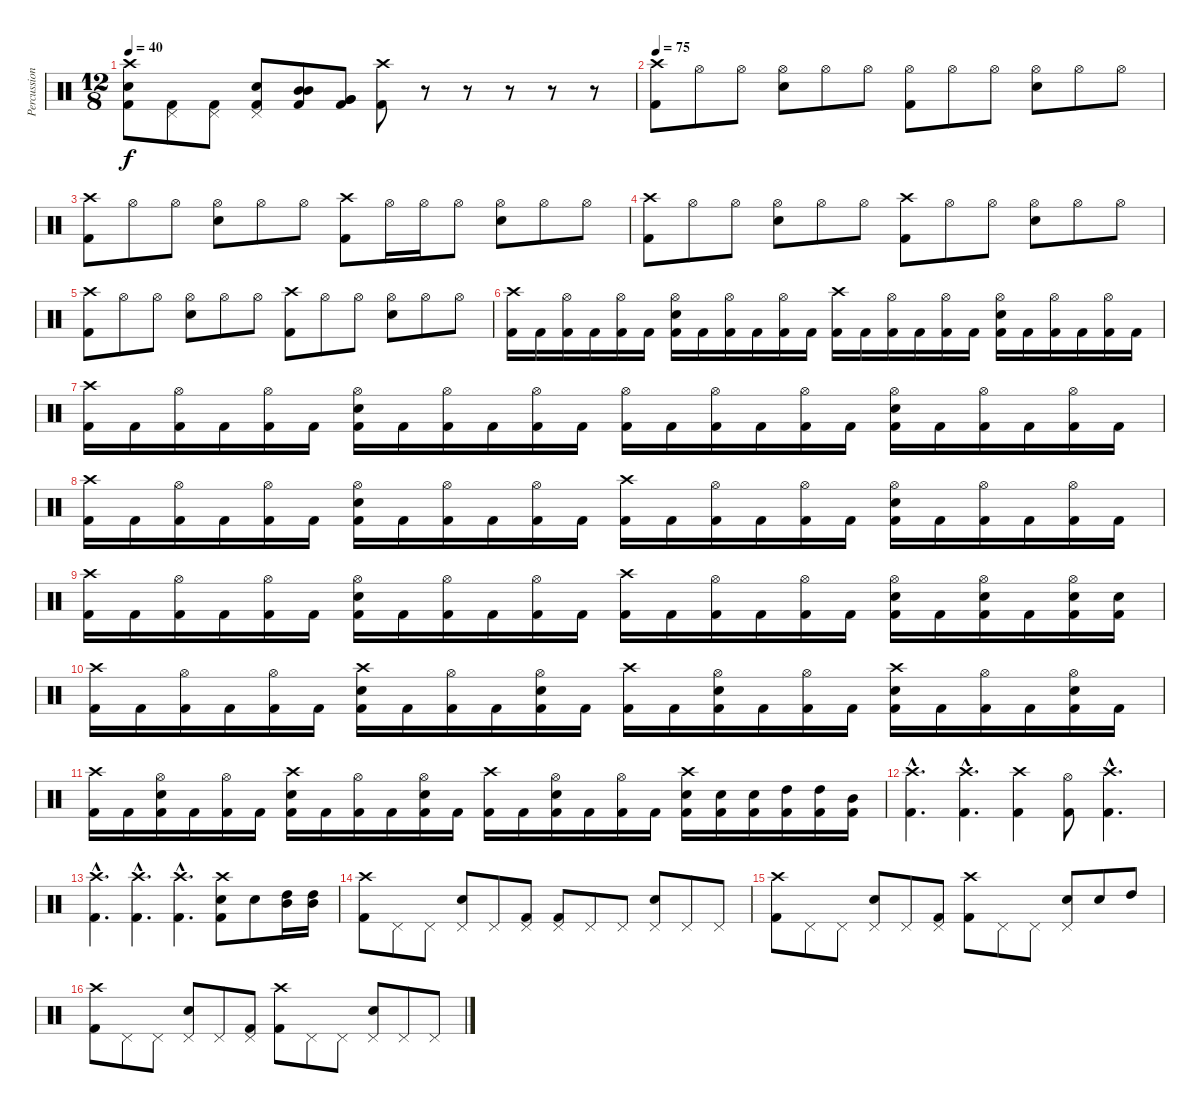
\track ("Percussions" "Percussion") {instrument percussion}
\staff {score}
\articulation defaults
\ts (12 8)
\tempo 40
\clef neutral
\ks c
("Crash high (hit)" "Electric Snare (hit)" "Kick (hit) 2").8{dy f} ("Pedal Hi-Hat (hit)" "Kick (hit) 2").8 ("Pedal Hi-Hat (hit)" "Kick (hit) 2").8 ("Pedal Hi-Hat (hit)" "Electric Snare (hit)" "Kick (hit) 2").8 ("Mid Tom (hit)" "Mid Tom (hit)" "Kick (hit) 2").8 ("Very Low Tom (hit)" "Very Low Tom (hit)" "Kick (hit) 2").8 ("Crash high (hit)" "Kick (hit) 2").8 r.8 r.8 r.8 r.8 r.8 |
\tempo 75
("Crash high (hit)" "Kick (hit) 2").8 "Hi-Hat (open)".8 "Hi-Hat (open)".8 ("Hi-Hat (open)" "Electric Snare (hit)").8 "Hi-Hat (open)".8 "Hi-Hat (open)".8 ("Hi-Hat (open)" "Kick (hit) 2").8 "Hi-Hat (open)".8 "Hi-Hat (open)".8 ("Hi-Hat (open)" "Electric Snare (hit)").8 "Hi-Hat (open)".8 "Hi-Hat (open)".8 |
("Crash high (hit)" "Kick (hit) 2").8 "Hi-Hat (open)".8 "Hi-Hat (open)".8 ("Hi-Hat (open)" "Electric Snare (hit)").8 "Hi-Hat (open)".8 "Hi-Hat (open)".8 ("Crash high (hit)" "Kick (hit) 2").8 "Hi-Hat (open)".16 "Hi-Hat (open)".16 "Hi-Hat (open)".8 ("Hi-Hat (open)" "Electric Snare (hit)").8 "Hi-Hat (open)".8 "Hi-Hat (open)".8 |
("Crash high (hit)" "Kick (hit) 2").8 "Hi-Hat (open)".8 "Hi-Hat (open)".8 ("Hi-Hat (open)" "Electric Snare (hit)").8 "Hi-Hat (open)".8 "Hi-Hat (open)".8 ("Crash high (hit)" "Kick (hit) 2").8 "Hi-Hat (open)".8 "Hi-Hat (open)".8 ("Hi-Hat (open)" "Electric Snare (hit)").8 "Hi-Hat (open)".8 "Hi-Hat (open)".8 |
("Crash high (hit)" "Kick (hit) 2").8 "Hi-Hat (open)".8 "Hi-Hat (open)".8 ("Hi-Hat (open)" "Electric Snare (hit)").8 "Hi-Hat (open)".8 "Hi-Hat (open)".8 ("Crash high (hit)" "Kick (hit) 2").8 "Hi-Hat (open)".8 "Hi-Hat (open)".8 ("Hi-Hat (open)" "Electric Snare (hit)").8 "Hi-Hat (open)".8 "Hi-Hat (open)".8 |
("Crash high (hit)" "Kick (hit) 2").16 "Kick (hit) 2".16 ("Hi-Hat (open)" "Kick (hit) 2").16 "Kick (hit) 2".16 ("Hi-Hat (open)" "Kick (hit) 2").16 "Kick (hit) 2".16 ("Hi-Hat (open)" "Electric Snare (hit)" "Kick (hit) 2").16 "Kick (hit) 2".16 ("Hi-Hat (open)" "Kick (hit) 2").16 "Kick (hit) 2".16 ("Hi-Hat (open)" "Kick (hit) 2").16 "Kick (hit) 2".16 ("Crash high (hit)" "Kick (hit) 2").16 "Kick (hit) 2".16 ("Hi-Hat (open)" "Kick (hit) 2").16 "Kick (hit) 2".16 ("Hi-Hat (open)" "Kick (hit) 2").16 "Kick (hit) 2".16 ("Hi-Hat (open)" "Electric Snare (hit)" "Kick (hit) 2").16 "Kick (hit) 2".16 ("Hi-Hat (open)" "Kick (hit) 2").16 "Kick (hit) 2".16 ("Hi-Hat (open)" "Kick (hit) 2").16 "Kick (hit) 2".16 |
("Crash high (hit)" "Kick (hit) 2").16 "Kick (hit) 2".16 ("Hi-Hat (open)" "Kick (hit) 2").16 "Kick (hit) 2".16 ("Hi-Hat (open)" "Kick (hit) 2").16 "Kick (hit) 2".16 ("Hi-Hat (open)" "Electric Snare (hit)" "Kick (hit) 2").16 "Kick (hit) 2".16 ("Hi-Hat (open)" "Kick (hit) 2").16 "Kick (hit) 2".16 ("Hi-Hat (open)" "Kick (hit) 2").16 "Kick (hit) 2".16 ("Hi-Hat (open)" "Kick (hit) 2").16 "Kick (hit) 2".16 ("Hi-Hat (open)" "Kick (hit) 2").16 "Kick (hit) 2".16 ("Hi-Hat (open)" "Kick (hit) 2").16 "Kick (hit) 2".16 ("Hi-Hat (open)" "Electric Snare (hit)" "Kick (hit) 2").16 "Kick (hit) 2".16 ("Hi-Hat (open)" "Kick (hit) 2").16 "Kick (hit) 2".16 ("Hi-Hat (open)" "Kick (hit) 2").16 "Kick (hit) 2".16 |
("Crash high (hit)" "Kick (hit) 2").16 "Kick (hit) 2".16 ("Hi-Hat (open)" "Kick (hit) 2").16 "Kick (hit) 2".16 ("Hi-Hat (open)" "Kick (hit) 2").16 "Kick (hit) 2".16 ("Hi-Hat (open)" "Electric Snare (hit)" "Kick (hit) 2").16 "Kick (hit) 2".16 ("Hi-Hat (open)" "Kick (hit) 2").16 "Kick (hit) 2".16 ("Hi-Hat (open)" "Kick (hit) 2").16 "Kick (hit) 2".16 ("Crash high (hit)" "Kick (hit) 2").16 "Kick (hit) 2".16 ("Hi-Hat (open)" "Kick (hit) 2").16 "Kick (hit) 2".16 ("Hi-Hat (open)" "Kick (hit) 2").16 "Kick (hit) 2".16 ("Hi-Hat (open)" "Electric Snare (hit)" "Kick (hit) 2").16 "Kick (hit) 2".16 ("Hi-Hat (open)" "Kick (hit) 2").16 "Kick (hit) 2".16 ("Hi-Hat (open)" "Kick (hit) 2").16 "Kick (hit) 2".16 |
("Crash high (hit)" "Kick (hit) 2").16 "Kick (hit) 2".16 ("Hi-Hat (open)" "Kick (hit) 2").16 "Kick (hit) 2".16 ("Hi-Hat (open)" "Kick (hit) 2").16 "Kick (hit) 2".16 ("Hi-Hat (open)" "Electric Snare (hit)" "Kick (hit) 2").16 "Kick (hit) 2".16 ("Hi-Hat (open)" "Kick (hit) 2").16 "Kick (hit) 2".16 ("Hi-Hat (open)" "Kick (hit) 2").16 "Kick (hit) 2".16 ("Crash high (hit)" "Kick (hit) 2").16 "Kick (hit) 2".16 ("Hi-Hat (open)" "Kick (hit) 2").16 "Kick (hit) 2".16 ("Hi-Hat (open)" "Kick (hit) 2").16 "Kick (hit) 2".16 ("Hi-Hat (open)" "Electric Snare (hit)" "Kick (hit) 2").16 "Kick (hit) 2".16 ("Hi-Hat (open)" "Electric Snare (hit)" "Kick (hit) 2").16 "Kick (hit) 2".16 ("Hi-Hat (open)" "Electric Snare (hit)" "Kick (hit) 2").16 ("Electric Snare (hit)" "Kick (hit) 2").16 |
("Crash high (hit)" "Kick (hit) 2").16 "Kick (hit) 2".16 ("Hi-Hat (open)" "Kick (hit) 2").16 "Kick (hit) 2".16 ("Hi-Hat (open)" "Kick (hit) 2").16 "Kick (hit) 2".16 ("Crash high (hit)" "Electric Snare (hit)" "Kick (hit) 2").16 "Kick (hit) 2".16 ("Hi-Hat (open)" "Kick (hit) 2").16 "Kick (hit) 2".16 ("Hi-Hat (open)" "Electric Snare (hit)" "Kick (hit) 2").16 "Kick (hit) 2".16 ("Crash high (hit)" "Kick (hit) 2").16 "Kick (hit) 2".16 ("Hi-Hat (open)" "Electric Snare (hit)" "Kick (hit) 2").16 "Kick (hit) 2".16 ("Hi-Hat (open)" "Kick (hit) 2").16 "Kick (hit) 2".16 ("Crash high (hit)" "Electric Snare (hit)" "Kick (hit) 2").16 "Kick (hit) 2".16 ("Hi-Hat (open)" "Kick (hit) 2").16 "Kick (hit) 2".16 ("Hi-Hat (open)" "Electric Snare (hit)" "Kick (hit) 2").16 "Kick (hit) 2".16 |
("Crash high (hit)" "Kick (hit) 2").16 "Kick (hit) 2".16 ("Hi-Hat (open)" "Electric Snare (hit)" "Kick (hit) 2").16 "Kick (hit) 2".16 ("Hi-Hat (open)" "Kick (hit) 2").16 "Kick (hit) 2".16 ("Crash high (hit)" "Electric Snare (hit)" "Kick (hit) 2").16 "Kick (hit) 2".16 ("Hi-Hat (open)" "Kick (hit) 2").16 "Kick (hit) 2".16 ("Hi-Hat (open)" "Electric Snare (hit)" "Kick (hit) 2").16 "Kick (hit) 2".16 ("Crash high (hit)" "Kick (hit) 2").16 "Kick (hit) 2".16 ("Hi-Hat (open)" "Electric Snare (hit)" "Kick (hit) 2").16 "Kick (hit) 2".16 ("Hi-Hat (open)" "Kick (hit) 2").16 "Kick (hit) 2".16 ("Crash high (hit)" "Electric Snare (hit)" "Kick (hit) 2").16 ("Electric Snare (hit)" "Kick (hit) 2").16 ("Electric Snare (hit)" "Kick (hit) 2").16 ("High Tom (hit)" "Kick (hit) 2").16 ("High Tom (hit)" "Kick (hit) 2").16 ("Mid Tom (hit)" "Kick (hit) 2").16 |
("Crash high (hit)"{hac} "Kick (hit) 2"{hac}).4{d} ("Crash high (hit)"{hac} "Kick (hit) 2"{hac}).4{d} ("Crash high (hit)" "Kick (hit) 2").4 ("Hi-Hat (open)" "Kick (hit) 2").8 ("Crash high (hit)"{hac} "Kick (hit) 2"{hac}).4{d} |
("Crash high (hit)"{hac} "Kick (hit) 2"{hac}).4{d} ("Crash high (hit)"{hac} "Kick (hit) 2"{hac}).4{d} ("Crash high (hit)"{hac} "Kick (hit) 2"{hac}).4{d} ("Crash high (hit)" "Electric Snare (hit)" "Kick (hit) 2").8 "Electric Snare (hit)".8 ("High Tom (hit)" "Mid Tom (hit)").16 ("High Tom (hit)" "Mid Tom (hit)").16 |
("Crash high (hit)" "Kick (hit) 2").8 "Pedal Hi-Hat (hit)".8 "Pedal Hi-Hat (hit)".8 ("Pedal Hi-Hat (hit)" "Electric Snare (hit)").8 "Pedal Hi-Hat (hit)".8 ("Pedal Hi-Hat (hit)" "Kick (hit) 2").8 ("Pedal Hi-Hat (hit)" "Kick (hit) 2").8 "Pedal Hi-Hat (hit)".8 "Pedal Hi-Hat (hit)".8 ("Pedal Hi-Hat (hit)" "Electric Snare (hit)").8 "Pedal Hi-Hat (hit)".8 "Pedal Hi-Hat (hit)".8 |
("Crash high (hit)" "Kick (hit) 2").8 "Pedal Hi-Hat (hit)".8 "Pedal Hi-Hat (hit)".8 ("Pedal Hi-Hat (hit)" "Electric Snare (hit)").8 "Pedal Hi-Hat (hit)".8 ("Pedal Hi-Hat (hit)" "Kick (hit) 2").8 ("Crash high (hit)" "Kick (hit) 2").8 "Pedal Hi-Hat (hit)".8 "Pedal Hi-Hat (hit)".8 ("Pedal Hi-Hat (hit)" "Electric Snare (hit)").8 "Electric Snare (hit)".8 "High Tom (hit)".8 |
("Crash high (hit)" "Kick (hit) 2").8 "Pedal Hi-Hat (hit)".8 "Pedal Hi-Hat (hit)".8 ("Pedal Hi-Hat (hit)" "Electric Snare (hit)").8 "Pedal Hi-Hat (hit)".8 ("Pedal Hi-Hat (hit)" "Kick (hit) 2").8 ("Crash high (hit)" "Kick (hit) 2").8 "Pedal Hi-Hat (hit)".8 "Pedal Hi-Hat (hit)".8 ("Pedal Hi-Hat (hit)" "Electric Snare (hit)").8 "Pedal Hi-Hat (hit)".8 "Pedal Hi-Hat (hit)".8
